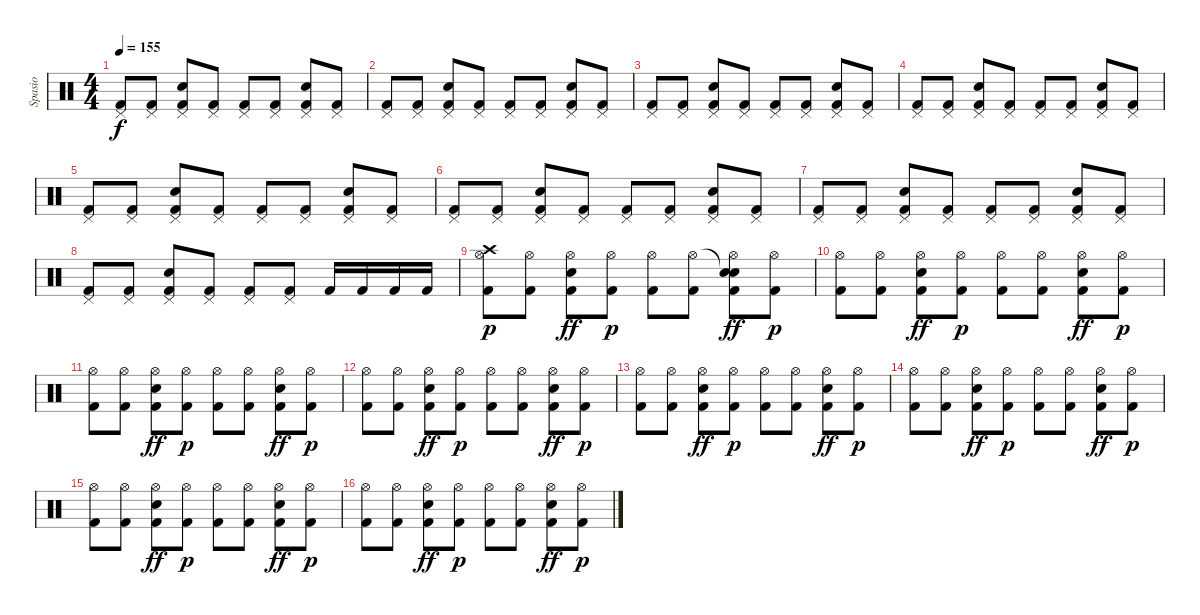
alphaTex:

\track ("Spasio" "Spasio") {instrument percussion}
\staff {score}
\articulation defaults
\ts (4 4)
\tempo 155
\clef neutral
\ks c
("Pedal Hi-Hat (hit)" "Kick (hit) 2").8{dy f} ("Pedal Hi-Hat (hit)" "Kick (hit) 2").8 ("Pedal Hi-Hat (hit)" "Electric Snare (hit)" "Kick (hit) 2").8 ("Pedal Hi-Hat (hit)" "Kick (hit) 2").8 ("Pedal Hi-Hat (hit)" "Kick (hit) 2").8 ("Pedal Hi-Hat (hit)" "Kick (hit) 2").8 ("Pedal Hi-Hat (hit)" "Electric Snare (hit)" "Kick (hit) 2").8 ("Pedal Hi-Hat (hit)" "Kick (hit) 2").8 |
("Pedal Hi-Hat (hit)" "Kick (hit) 2").8 ("Pedal Hi-Hat (hit)" "Kick (hit) 2").8 ("Pedal Hi-Hat (hit)" "Electric Snare (hit)" "Kick (hit) 2").8 ("Pedal Hi-Hat (hit)" "Kick (hit) 2").8 ("Pedal Hi-Hat (hit)" "Kick (hit) 2").8 ("Pedal Hi-Hat (hit)" "Kick (hit) 2").8 ("Pedal Hi-Hat (hit)" "Electric Snare (hit)" "Kick (hit) 2").8 ("Pedal Hi-Hat (hit)" "Kick (hit) 2").8 |
("Pedal Hi-Hat (hit)" "Kick (hit) 2").8 ("Pedal Hi-Hat (hit)" "Kick (hit) 2").8 ("Pedal Hi-Hat (hit)" "Electric Snare (hit)" "Kick (hit) 2").8 ("Pedal Hi-Hat (hit)" "Kick (hit) 2").8 ("Pedal Hi-Hat (hit)" "Kick (hit) 2").8 ("Pedal Hi-Hat (hit)" "Kick (hit) 2").8 ("Pedal Hi-Hat (hit)" "Electric Snare (hit)" "Kick (hit) 2").8 ("Pedal Hi-Hat (hit)" "Kick (hit) 2").8 |
("Pedal Hi-Hat (hit)" "Kick (hit) 2").8 ("Pedal Hi-Hat (hit)" "Kick (hit) 2").8 ("Pedal Hi-Hat (hit)" "Electric Snare (hit)" "Kick (hit) 2").8 ("Pedal Hi-Hat (hit)" "Kick (hit) 2").8 ("Pedal Hi-Hat (hit)" "Kick (hit) 2").8 ("Pedal Hi-Hat (hit)" "Kick (hit) 2").8 ("Pedal Hi-Hat (hit)" "Electric Snare (hit)" "Kick (hit) 2").8 ("Pedal Hi-Hat (hit)" "Kick (hit) 2").8 |
("Pedal Hi-Hat (hit)" "Kick (hit) 2").8 ("Pedal Hi-Hat (hit)" "Kick (hit) 2").8 ("Pedal Hi-Hat (hit)" "Electric Snare (hit)" "Kick (hit) 2").8 ("Pedal Hi-Hat (hit)" "Kick (hit) 2").8 ("Pedal Hi-Hat (hit)" "Kick (hit) 2").8 ("Pedal Hi-Hat (hit)" "Kick (hit) 2").8 ("Pedal Hi-Hat (hit)" "Electric Snare (hit)" "Kick (hit) 2").8 ("Pedal Hi-Hat (hit)" "Kick (hit) 2").8 |
("Pedal Hi-Hat (hit)" "Kick (hit) 2").8 ("Pedal Hi-Hat (hit)" "Kick (hit) 2").8 ("Pedal Hi-Hat (hit)" "Electric Snare (hit)" "Kick (hit) 2").8 ("Pedal Hi-Hat (hit)" "Kick (hit) 2").8 ("Pedal Hi-Hat (hit)" "Kick (hit) 2").8 ("Pedal Hi-Hat (hit)" "Kick (hit) 2").8 ("Pedal Hi-Hat (hit)" "Electric Snare (hit)" "Kick (hit) 2").8 ("Pedal Hi-Hat (hit)" "Kick (hit) 2").8 |
("Pedal Hi-Hat (hit)" "Kick (hit) 2").8 ("Pedal Hi-Hat (hit)" "Kick (hit) 2").8 ("Pedal Hi-Hat (hit)" "Electric Snare (hit)" "Kick (hit) 2").8 ("Pedal Hi-Hat (hit)" "Kick (hit) 2").8 ("Pedal Hi-Hat (hit)" "Kick (hit) 2").8 ("Pedal Hi-Hat (hit)" "Kick (hit) 2").8 ("Pedal Hi-Hat (hit)" "Electric Snare (hit)" "Kick (hit) 2").8 ("Pedal Hi-Hat (hit)" "Kick (hit) 2").8 |
("Pedal Hi-Hat (hit)" "Kick (hit) 2").8 ("Pedal Hi-Hat (hit)" "Kick (hit) 2").8 ("Pedal Hi-Hat (hit)" "Electric Snare (hit)" "Kick (hit) 2").8 ("Pedal Hi-Hat (hit)" "Kick (hit) 2").8 ("Pedal Hi-Hat (hit)" "Kick (hit) 2").8 ("Pedal Hi-Hat (hit)" "Kick (hit) 2").8 "Kick (hit) 2".16 "Kick (hit) 2".16 "Kick (hit) 2".16 "Kick (hit) 2".16 |
("Crash high (hit)" "Hi-Hat (open)" "Kick (hit) 2").8{dy p} ("Hi-Hat (open)" "Kick (hit) 2").8 ("Hi-Hat (open)" "Electric Snare (hit)" "Kick (hit) 2").8{dy ff} ("Hi-Hat (open)" "Kick (hit) 2").8{dy p} ("Hi-Hat (open)" "Kick (hit) 2").8 ("Hi-Hat (open)" "Kick (hit) 2").8 ("Snare (hit)"{t} "Hi-Hat (open)" "Electric Snare (hit)" "Kick (hit) 2").8{dy ff} ("Hi-Hat (open)" "Kick (hit) 2").8{dy p} |
("Hi-Hat (open)" "Kick (hit) 2").8 ("Hi-Hat (open)" "Kick (hit) 2").8 ("Hi-Hat (open)" "Electric Snare (hit)" "Kick (hit) 2").8{dy ff} ("Hi-Hat (open)" "Kick (hit) 2").8{dy p} ("Hi-Hat (open)" "Kick (hit) 2").8 ("Hi-Hat (open)" "Kick (hit) 2").8 ("Hi-Hat (open)" "Electric Snare (hit)" "Kick (hit) 2").8{dy ff} ("Hi-Hat (open)" "Kick (hit) 2").8{dy p} |
("Hi-Hat (open)" "Kick (hit) 2").8 ("Hi-Hat (open)" "Kick (hit) 2").8 ("Hi-Hat (open)" "Electric Snare (hit)" "Kick (hit) 2").8{dy ff} ("Hi-Hat (open)" "Kick (hit) 2").8{dy p} ("Hi-Hat (open)" "Kick (hit) 2").8 ("Hi-Hat (open)" "Kick (hit) 2").8 ("Hi-Hat (open)" "Electric Snare (hit)" "Kick (hit) 2").8{dy ff} ("Hi-Hat (open)" "Kick (hit) 2").8{dy p} |
("Hi-Hat (open)" "Kick (hit) 2").8 ("Hi-Hat (open)" "Kick (hit) 2").8 ("Hi-Hat (open)" "Electric Snare (hit)" "Kick (hit) 2").8{dy ff} ("Hi-Hat (open)" "Kick (hit) 2").8{dy p} ("Hi-Hat (open)" "Kick (hit) 2").8 ("Hi-Hat (open)" "Kick (hit) 2").8 ("Hi-Hat (open)" "Electric Snare (hit)" "Kick (hit) 2").8{dy ff} ("Hi-Hat (open)" "Kick (hit) 2").8{dy p} |
("Hi-Hat (open)" "Kick (hit) 2").8 ("Hi-Hat (open)" "Kick (hit) 2").8 ("Hi-Hat (open)" "Electric Snare (hit)" "Kick (hit) 2").8{dy ff} ("Hi-Hat (open)" "Kick (hit) 2").8{dy p} ("Hi-Hat (open)" "Kick (hit) 2").8 ("Hi-Hat (open)" "Kick (hit) 2").8 ("Hi-Hat (open)" "Electric Snare (hit)" "Kick (hit) 2").8{dy ff} ("Hi-Hat (open)" "Kick (hit) 2").8{dy p} |
("Hi-Hat (open)" "Kick (hit) 2").8 ("Hi-Hat (open)" "Kick (hit) 2").8 ("Hi-Hat (open)" "Electric Snare (hit)" "Kick (hit) 2").8{dy ff} ("Hi-Hat (open)" "Kick (hit) 2").8{dy p} ("Hi-Hat (open)" "Kick (hit) 2").8 ("Hi-Hat (open)" "Kick (hit) 2").8 ("Hi-Hat (open)" "Electric Snare (hit)" "Kick (hit) 2").8{dy ff} ("Hi-Hat (open)" "Kick (hit) 2").8{dy p} |
("Hi-Hat (open)" "Kick (hit) 2").8 ("Hi-Hat (open)" "Kick (hit) 2").8 ("Hi-Hat (open)" "Electric Snare (hit)" "Kick (hit) 2").8{dy ff} ("Hi-Hat (open)" "Kick (hit) 2").8{dy p} ("Hi-Hat (open)" "Kick (hit) 2").8 ("Hi-Hat (open)" "Kick (hit) 2").8 ("Hi-Hat (open)" "Electric Snare (hit)" "Kick (hit) 2").8{dy ff} ("Hi-Hat (open)" "Kick (hit) 2").8{dy p} |
("Hi-Hat (open)" "Kick (hit) 2").8 ("Hi-Hat (open)" "Kick (hit) 2").8 ("Hi-Hat (open)" "Electric Snare (hit)" "Kick (hit) 2").8{dy ff} ("Hi-Hat (open)" "Kick (hit) 2").8{dy p} ("Hi-Hat (open)" "Kick (hit) 2").8 ("Hi-Hat (open)" "Kick (hit) 2").8 ("Hi-Hat (open)" "Electric Snare (hit)" "Kick (hit) 2").8{dy ff} ("Hi-Hat (open)" "Kick (hit) 2").8{dy p}
